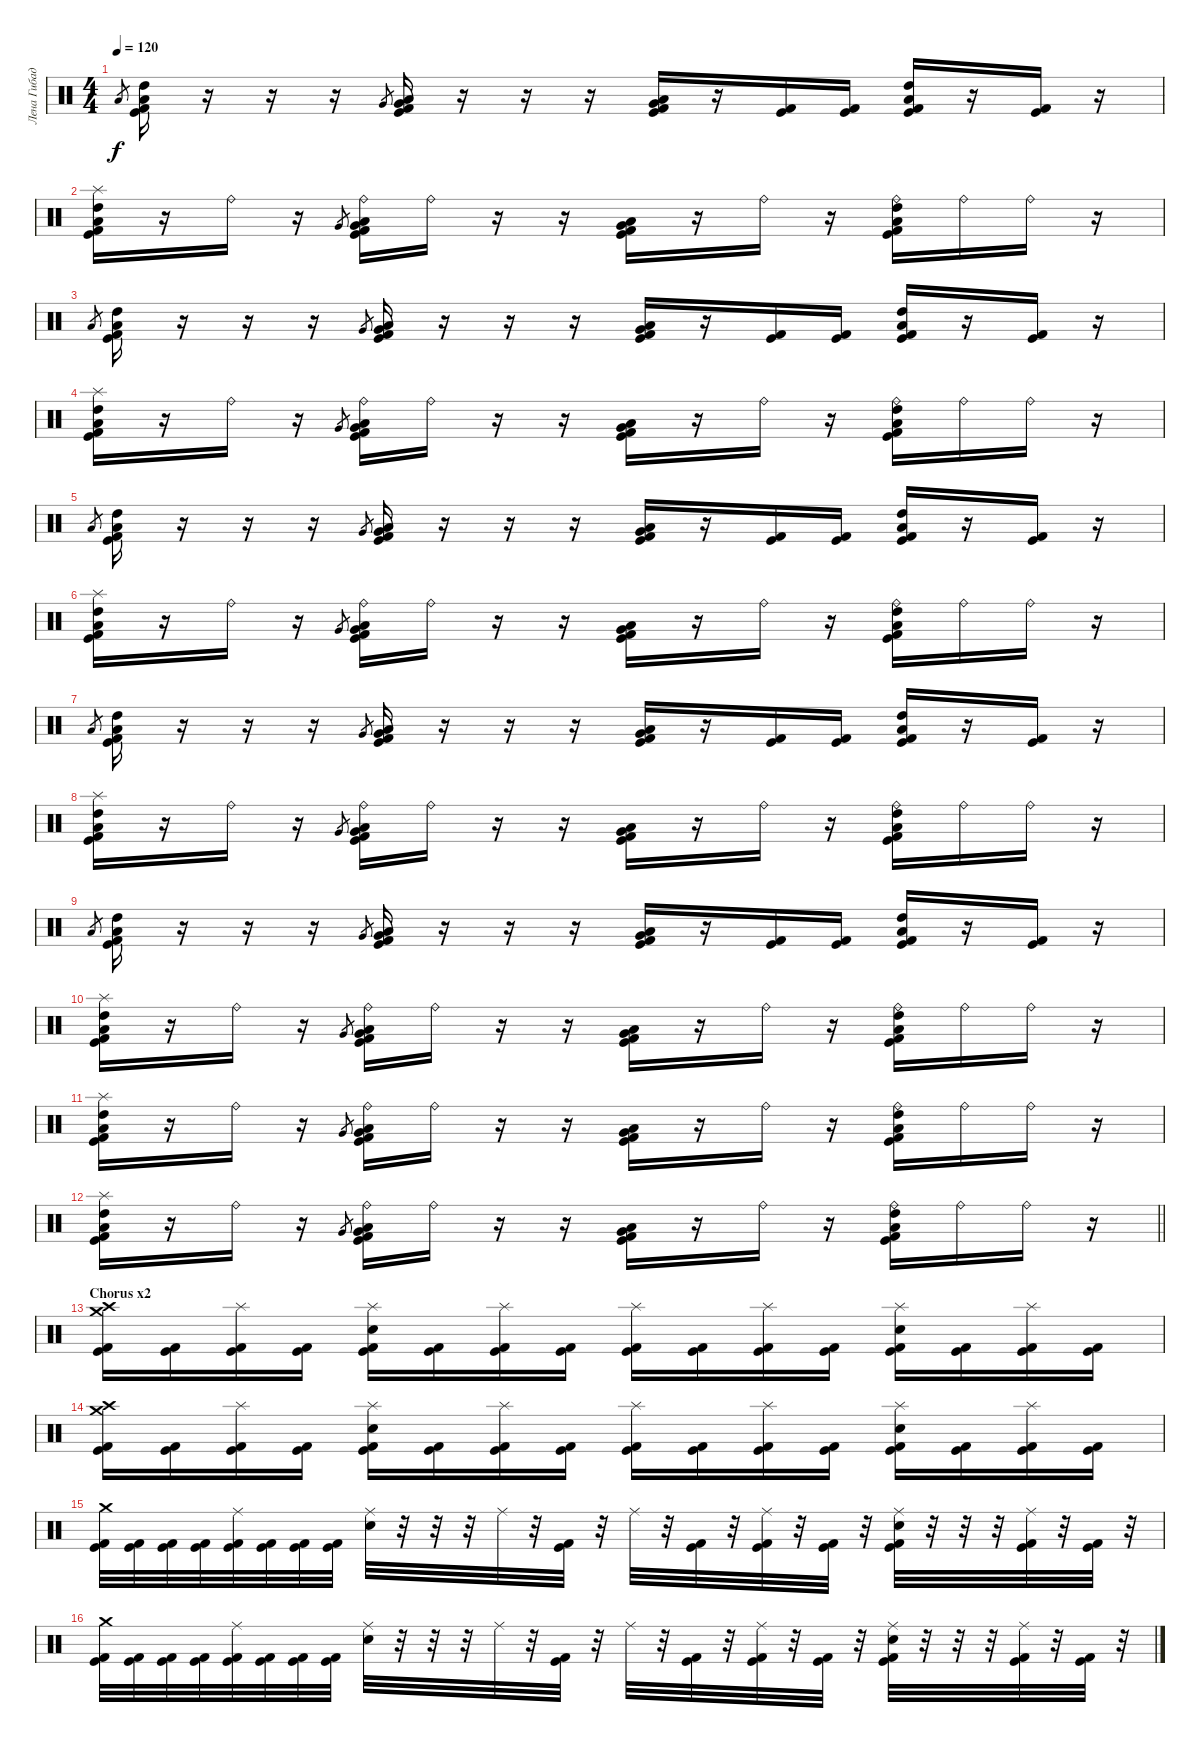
\track ("Лена Гибадулина" "Лена Гибад") {instrument percussion}
\staff {score}
\articulation defaults
\ts (4 4)
\tempo 120
\clef neutral
\ks c "Low Tom (hit)".8{gr dy f}
("Kick (hit)" "Kick (hit) 2" "High Tom (hit)" "Low Tom (hit)").16 r.16 r.16 r.16 "Very Low Tom (hit)".8{gr} ("Kick (hit)" "Kick (hit) 2" "Very Low Tom (hit)" "Low Tom (hit)").16 r.16 r.16 r.16 ("Kick (hit)" "Kick (hit) 2" "Low Floor Tom (hit)" "Very Low Tom (hit)").16 r.16 ("Kick (hit)" "Kick (hit) 2").16 ("Kick (hit)" "Kick (hit) 2").16 ("Kick (hit)" "Kick (hit) 2" "Low Tom (hit)" "High Tom (hit)").16 r.16 ("Kick (hit)" "Kick (hit) 2").16 r.16 |
("Splash (hit)" "Kick (hit)" "Kick (hit) 2" "High Tom (hit)" "Low Tom (hit)").16 r.16 "Ride (bell)".16 r.16 "Very Low Tom (hit)".8{gr} ("Ride (bell)" "Kick (hit)" "Kick (hit) 2" "Very Low Tom (hit)" "Low Tom (hit)").16 "Ride (bell)".16 r.16 r.16 ("Kick (hit)" "Kick (hit) 2" "Low Floor Tom (hit)" "Very Low Tom (hit)").16 r.16 "Ride (bell)".16 r.16 ("Ride (bell)" "Kick (hit)" "Kick (hit) 2" "Low Tom (hit)" "High Tom (hit)").16 "Ride (bell)".16 "Ride (bell)".16 r.16 |
"Low Tom (hit)".8{gr} ("Kick (hit)" "Kick (hit) 2" "High Tom (hit)" "Low Tom (hit)").16 r.16 r.16 r.16 "Very Low Tom (hit)".8{gr} ("Kick (hit)" "Kick (hit) 2" "Very Low Tom (hit)" "Low Tom (hit)").16 r.16 r.16 r.16 ("Kick (hit)" "Kick (hit) 2" "Low Floor Tom (hit)" "Very Low Tom (hit)").16 r.16 ("Kick (hit)" "Kick (hit) 2").16 ("Kick (hit)" "Kick (hit) 2").16 ("Kick (hit)" "Kick (hit) 2" "Low Tom (hit)" "High Tom (hit)").16 r.16 ("Kick (hit)" "Kick (hit) 2").16 r.16 |
("Splash (hit)" "Kick (hit)" "Kick (hit) 2" "High Tom (hit)" "Low Tom (hit)").16 r.16 "Ride (bell)".16 r.16 "Very Low Tom (hit)".8{gr} ("Ride (bell)" "Kick (hit)" "Kick (hit) 2" "Very Low Tom (hit)" "Low Tom (hit)").16 "Ride (bell)".16 r.16 r.16 ("Kick (hit)" "Kick (hit) 2" "Low Floor Tom (hit)" "Very Low Tom (hit)").16 r.16 "Ride (bell)".16 r.16 ("Ride (bell)" "Kick (hit)" "Kick (hit) 2" "Low Tom (hit)" "High Tom (hit)").16 "Ride (bell)".16 "Ride (bell)".16 r.16 |
"Low Tom (hit)".8{gr} ("Kick (hit)" "Kick (hit) 2" "High Tom (hit)" "Low Tom (hit)").16 r.16 r.16 r.16 "Very Low Tom (hit)".8{gr} ("Kick (hit)" "Kick (hit) 2" "Very Low Tom (hit)" "Low Tom (hit)").16 r.16 r.16 r.16 ("Kick (hit)" "Kick (hit) 2" "Low Floor Tom (hit)" "Very Low Tom (hit)").16 r.16 ("Kick (hit)" "Kick (hit) 2").16 ("Kick (hit)" "Kick (hit) 2").16 ("Kick (hit)" "Kick (hit) 2" "Low Tom (hit)" "High Tom (hit)").16 r.16 ("Kick (hit)" "Kick (hit) 2").16 r.16 |
("Splash (hit)" "Kick (hit)" "Kick (hit) 2" "High Tom (hit)" "Low Tom (hit)").16 r.16 "Ride (bell)".16 r.16 "Very Low Tom (hit)".8{gr} ("Ride (bell)" "Kick (hit)" "Kick (hit) 2" "Very Low Tom (hit)" "Low Tom (hit)").16 "Ride (bell)".16 r.16 r.16 ("Kick (hit)" "Kick (hit) 2" "Low Floor Tom (hit)" "Very Low Tom (hit)").16 r.16 "Ride (bell)".16 r.16 ("Ride (bell)" "Kick (hit)" "Kick (hit) 2" "Low Tom (hit)" "High Tom (hit)").16 "Ride (bell)".16 "Ride (bell)".16 r.16 |
"Low Tom (hit)".8{gr} ("Kick (hit)" "Kick (hit) 2" "High Tom (hit)" "Low Tom (hit)").16 r.16 r.16 r.16 "Very Low Tom (hit)".8{gr} ("Kick (hit)" "Kick (hit) 2" "Very Low Tom (hit)" "Low Tom (hit)").16 r.16 r.16 r.16 ("Kick (hit)" "Kick (hit) 2" "Low Floor Tom (hit)" "Very Low Tom (hit)").16 r.16 ("Kick (hit)" "Kick (hit) 2").16 ("Kick (hit)" "Kick (hit) 2").16 ("Kick (hit)" "Kick (hit) 2" "Low Tom (hit)" "High Tom (hit)").16 r.16 ("Kick (hit)" "Kick (hit) 2").16 r.16 |
("Splash (hit)" "Kick (hit)" "Kick (hit) 2" "High Tom (hit)" "Low Tom (hit)").16 r.16 "Ride (bell)".16 r.16 "Very Low Tom (hit)".8{gr} ("Ride (bell)" "Kick (hit)" "Kick (hit) 2" "Very Low Tom (hit)" "Low Tom (hit)").16 "Ride (bell)".16 r.16 r.16 ("Kick (hit)" "Kick (hit) 2" "Low Floor Tom (hit)" "Very Low Tom (hit)").16 r.16 "Ride (bell)".16 r.16 ("Ride (bell)" "Kick (hit)" "Kick (hit) 2" "Low Tom (hit)" "High Tom (hit)").16 "Ride (bell)".16 "Ride (bell)".16 r.16 |
"Low Tom (hit)".8{gr} ("Kick (hit)" "Kick (hit) 2" "High Tom (hit)" "Low Tom (hit)").16 r.16 r.16 r.16 "Very Low Tom (hit)".8{gr} ("Kick (hit)" "Kick (hit) 2" "Very Low Tom (hit)" "Low Tom (hit)").16 r.16 r.16 r.16 ("Kick (hit)" "Kick (hit) 2" "Low Floor Tom (hit)" "Very Low Tom (hit)").16 r.16 ("Kick (hit)" "Kick (hit) 2").16 ("Kick (hit)" "Kick (hit) 2").16 ("Kick (hit)" "Kick (hit) 2" "Low Tom (hit)" "High Tom (hit)").16 r.16 ("Kick (hit)" "Kick (hit) 2").16 r.16 |
("Splash (hit)" "Kick (hit)" "Kick (hit) 2" "High Tom (hit)" "Low Tom (hit)").16 r.16 "Ride (bell)".16 r.16 "Very Low Tom (hit)".8{gr} ("Ride (bell)" "Kick (hit)" "Kick (hit) 2" "Very Low Tom (hit)" "Low Tom (hit)").16 "Ride (bell)".16 r.16 r.16 ("Kick (hit)" "Kick (hit) 2" "Low Floor Tom (hit)" "Very Low Tom (hit)").16 r.16 "Ride (bell)".16 r.16 ("Ride (bell)" "Kick (hit)" "Kick (hit) 2" "Low Tom (hit)" "High Tom (hit)").16 "Ride (bell)".16 "Ride (bell)".16 r.16 |
("Splash (hit)" "Kick (hit)" "Kick (hit) 2" "High Tom (hit)" "Low Tom (hit)").16 r.16 "Ride (bell)".16 r.16 "Very Low Tom (hit)".8{gr} ("Ride (bell)" "Kick (hit)" "Kick (hit) 2" "Very Low Tom (hit)" "Low Tom (hit)").16 "Ride (bell)".16 r.16 r.16 ("Kick (hit)" "Kick (hit) 2" "Low Floor Tom (hit)" "Very Low Tom (hit)").16 r.16 "Ride (bell)".16 r.16 ("Ride (bell)" "Kick (hit)" "Kick (hit) 2" "Low Tom (hit)" "High Tom (hit)").16 "Ride (bell)".16 "Ride (bell)".16 r.16 |
\barLineRight lightlight
("Splash (hit)" "Kick (hit)" "Kick (hit) 2" "High Tom (hit)" "Low Tom (hit)").16 r.16 "Ride (bell)".16 r.16 "Very Low Tom (hit)".8{gr} ("Ride (bell)" "Kick (hit)" "Kick (hit) 2" "Very Low Tom (hit)" "Low Tom (hit)").16 "Ride (bell)".16 r.16 r.16 ("Kick (hit)" "Kick (hit) 2" "Low Floor Tom (hit)" "Very Low Tom (hit)").16 r.16 "Ride (bell)".16 r.16 ("Ride (bell)" "Kick (hit)" "Kick (hit) 2" "Low Tom (hit)" "High Tom (hit)").16 "Ride (bell)".16 "Ride (bell)".16 r.16 |
\section ("" "Chorus x2")
("Crash high (hit)" "Crash medium (hit)" "Kick (hit)" "Kick (hit) 2").16 ("Kick (hit)" "Kick (hit) 2").16 ("Splash (hit)" "Kick (hit)" "Kick (hit) 2").16 ("Kick (hit)" "Kick (hit) 2").16 ("Electric Snare (hit)" "Splash (hit)" "Kick (hit)" "Kick (hit) 2").16 ("Kick (hit)" "Kick (hit) 2").16 ("Splash (hit)" "Kick (hit)" "Kick (hit) 2").16 ("Kick (hit)" "Kick (hit) 2").16 ("Splash (hit)" "Kick (hit)" "Kick (hit) 2").16 ("Kick (hit)" "Kick (hit) 2").16 ("Splash (hit)" "Kick (hit)" "Kick (hit) 2").16 ("Kick (hit)" "Kick (hit) 2").16 ("Electric Snare (hit)" "Splash (hit)" "Kick (hit)" "Kick (hit) 2").16 ("Kick (hit)" "Kick (hit) 2").16 ("Splash (hit)" "Kick (hit)" "Kick (hit) 2").16 ("Kick (hit)" "Kick (hit) 2").16 |
("Crash high (hit)" "Crash medium (hit)" "Kick (hit)" "Kick (hit) 2").16 ("Kick (hit)" "Kick (hit) 2").16 ("Splash (hit)" "Kick (hit)" "Kick (hit) 2").16 ("Kick (hit)" "Kick (hit) 2").16 ("Electric Snare (hit)" "Splash (hit)" "Kick (hit)" "Kick (hit) 2").16 ("Kick (hit)" "Kick (hit) 2").16 ("Splash (hit)" "Kick (hit)" "Kick (hit) 2").16 ("Kick (hit)" "Kick (hit) 2").16 ("Splash (hit)" "Kick (hit)" "Kick (hit) 2").16 ("Kick (hit)" "Kick (hit) 2").16 ("Splash (hit)" "Kick (hit)" "Kick (hit) 2").16 ("Kick (hit)" "Kick (hit) 2").16 ("Electric Snare (hit)" "Splash (hit)" "Kick (hit)" "Kick (hit) 2").16 ("Kick (hit)" "Kick (hit) 2").16 ("Splash (hit)" "Kick (hit)" "Kick (hit) 2").16 ("Kick (hit)" "Kick (hit) 2").16 |
("Crash medium (hit)" "Kick (hit)" "Kick (hit) 2").32 ("Kick (hit)" "Kick (hit) 2").32 ("Kick (hit)" "Kick (hit) 2").32 ("Kick (hit)" "Kick (hit) 2").32 ("Ride (middle)" "Kick (hit)" "Kick (hit) 2").32 ("Kick (hit)" "Kick (hit) 2").32 ("Kick (hit)" "Kick (hit) 2").32 ("Kick (hit)" "Kick (hit) 2").32 ("Ride (middle)" "Electric Snare (hit)").32 r.32 r.32 r.32 "Ride (middle)".32 r.32 ("Kick (hit)" "Kick (hit) 2").32 r.32 "Ride (middle)".32 r.32 ("Kick (hit)" "Kick (hit) 2").32 r.32 ("Ride (middle)" "Kick (hit)" "Kick (hit) 2").32 r.32 ("Kick (hit)" "Kick (hit) 2").32 r.32 ("Ride (middle)" "Electric Snare (hit)" "Kick (hit)" "Kick (hit) 2").32 r.32 r.32 r.32 ("Ride (middle)" "Kick (hit)" "Kick (hit) 2").32 r.32 ("Kick (hit) 2" "Kick (hit)").32 r.32 |
("Crash medium (hit)" "Kick (hit)" "Kick (hit) 2").32 ("Kick (hit)" "Kick (hit) 2").32 ("Kick (hit)" "Kick (hit) 2").32 ("Kick (hit)" "Kick (hit) 2").32 ("Ride (middle)" "Kick (hit)" "Kick (hit) 2").32 ("Kick (hit)" "Kick (hit) 2").32 ("Kick (hit)" "Kick (hit) 2").32 ("Kick (hit)" "Kick (hit) 2").32 ("Ride (middle)" "Electric Snare (hit)").32 r.32 r.32 r.32 "Ride (middle)".32 r.32 ("Kick (hit)" "Kick (hit) 2").32 r.32 "Ride (middle)".32 r.32 ("Kick (hit)" "Kick (hit) 2").32 r.32 ("Ride (middle)" "Kick (hit)" "Kick (hit) 2").32 r.32 ("Kick (hit)" "Kick (hit) 2").32 r.32 ("Ride (middle)" "Electric Snare (hit)" "Kick (hit)" "Kick (hit) 2").32 r.32 r.32 r.32 ("Ride (middle)" "Kick (hit)" "Kick (hit) 2").32 r.32 ("Kick (hit) 2" "Kick (hit)").32 r.32
